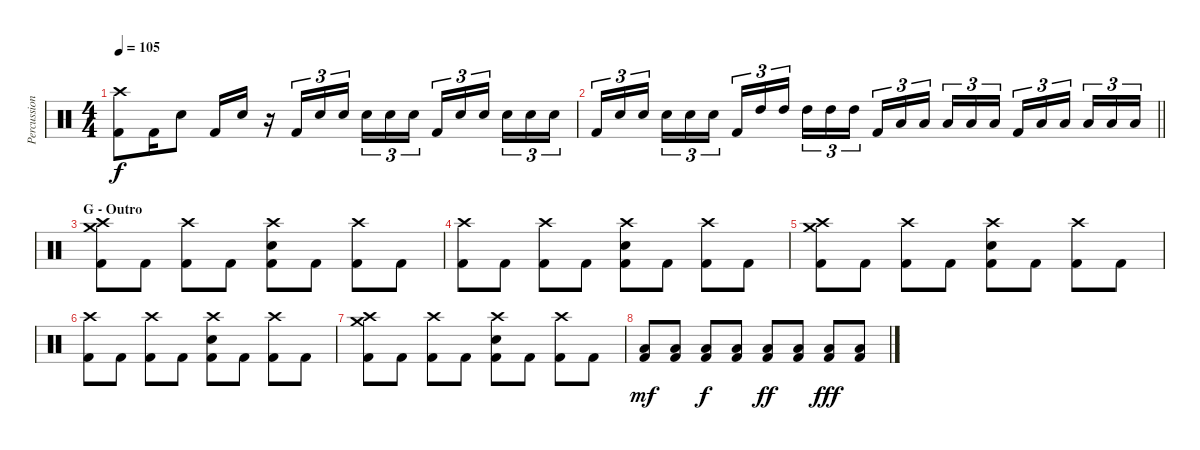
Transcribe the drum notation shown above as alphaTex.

\track ("Percussions" "Percussion") {instrument percussion}
\staff {score}
\articulation defaults
\ts (4 4)
\tempo 105
\clef neutral
\ks c
("Crash high (hit)" "Kick (hit) 2").8{dy f} "Kick (hit) 2".16 "Snare (hit) 2".8 "Kick (hit) 2".16 "Snare (hit) 2".16 r.16 "Kick (hit) 2".16{tu (3 2)} "Snare (hit) 2".16{tu (3 2)} "Snare (hit) 2".16{tu (3 2) beam splitsecondary} "Snare (hit) 2".16{tu (3 2)} "Snare (hit) 2".16{tu (3 2)} "Snare (hit) 2".16{tu (3 2)} "Kick (hit) 2".16{tu (3 2)} "Snare (hit) 2".16{tu (3 2)} "Snare (hit) 2".16{tu (3 2) beam splitsecondary} "Snare (hit) 2".16{tu (3 2)} "Snare (hit) 2".16{tu (3 2)} "Snare (hit) 2".16{tu (3 2)} |
\barLineRight lightlight "Kick (hit) 2".16{tu (3 2)} "Snare (hit) 2".16{tu (3 2)} "Snare (hit) 2".16{tu (3 2) beam splitsecondary} "Snare (hit) 2".16{tu (3 2)} "Snare (hit) 2".16{tu (3 2)} "Snare (hit) 2".16{tu (3 2)} "Kick (hit) 2".16{tu (3 2)} "High Tom (hit)".16{tu (3 2)} "High Tom (hit)".16{tu (3 2) beam splitsecondary} "High Tom (hit)".16{tu (3 2)} "High Tom (hit)".16{tu (3 2)} "High Tom (hit)".16{tu (3 2)} "Kick (hit) 2".16{tu (3 2)} "Low Tom (hit)".16{tu (3 2)} "Low Tom (hit)".16{tu (3 2) beam splitsecondary} "Low Tom (hit)".16{tu (3 2)} "Low Tom (hit)".16{tu (3 2)} "Low Tom (hit)".16{tu (3 2)} "Kick (hit) 2".16{tu (3 2)} "Low Floor Tom (hit)".16{tu (3 2)} "Low Floor Tom (hit)".16{tu (3 2) beam splitsecondary} "Low Floor Tom (hit)".16{tu (3 2)} "Low Floor Tom (hit)".16{tu (3 2)} "Low Floor Tom (hit)".16{tu (3 2)}
|
\section ("" "G - Outro")
("Crash medium (hit)" "Crash high (hit)" "Kick (hit) 2").8 "Kick (hit) 2".8 ("Crash high (hit)" "Kick (hit) 2").8 "Kick (hit) 2".8 ("Crash high (hit)" "Snare (hit) 2" "Kick (hit) 2").8 "Kick (hit) 2".8 ("Crash high (hit)" "Kick (hit) 2").8 "Kick (hit) 2".8 |
("Crash high (hit)" "Kick (hit) 2").8 "Kick (hit) 2".8 ("Crash high (hit)" "Kick (hit) 2").8 "Kick (hit) 2".8 ("Crash high (hit)" "Snare (hit) 2" "Kick (hit) 2").8 "Kick (hit) 2".8 ("Crash high (hit)" "Kick (hit) 2").8 "Kick (hit) 2".8 |
("Crash medium (hit)" "Crash high (hit)" "Kick (hit) 2").8 "Kick (hit) 2".8 ("Crash high (hit)" "Kick (hit) 2").8 "Kick (hit) 2".8 ("Crash high (hit)" "Snare (hit) 2" "Kick (hit) 2").8 "Kick (hit) 2".8 ("Crash high (hit)" "Kick (hit) 2").8 "Kick (hit) 2".8 |
("Crash high (hit)" "Kick (hit) 2").8 "Kick (hit) 2".8 ("Crash high (hit)" "Kick (hit) 2").8 "Kick (hit) 2".8 ("Crash high (hit)" "Snare (hit) 2" "Kick (hit) 2").8 "Kick (hit) 2".8 ("Crash high (hit)" "Kick (hit) 2").8 "Kick (hit) 2".8 |
("Crash medium (hit)" "Crash high (hit)" "Kick (hit) 2").8 "Kick (hit) 2".8 ("Crash high (hit)" "Kick (hit) 2").8 "Kick (hit) 2".8 ("Crash high (hit)" "Snare (hit) 2" "Kick (hit) 2").8 "Kick (hit) 2".8 ("Crash high (hit)" "Kick (hit) 2").8 "Kick (hit) 2".8 |
("Low Tom (hit)" "Kick (hit) 2").8{dy mf} ("Low Tom (hit)" "Kick (hit) 2").8 ("Low Tom (hit)" "Kick (hit) 2").8{dy f} ("Low Tom (hit)" "Kick (hit) 2").8 ("Low Tom (hit)" "Kick (hit) 2").8{dy ff} ("Low Tom (hit)" "Kick (hit) 2").8 ("Low Tom (hit)" "Kick (hit) 2").8{dy fff} ("Low Tom (hit)" "Kick (hit) 2").8
